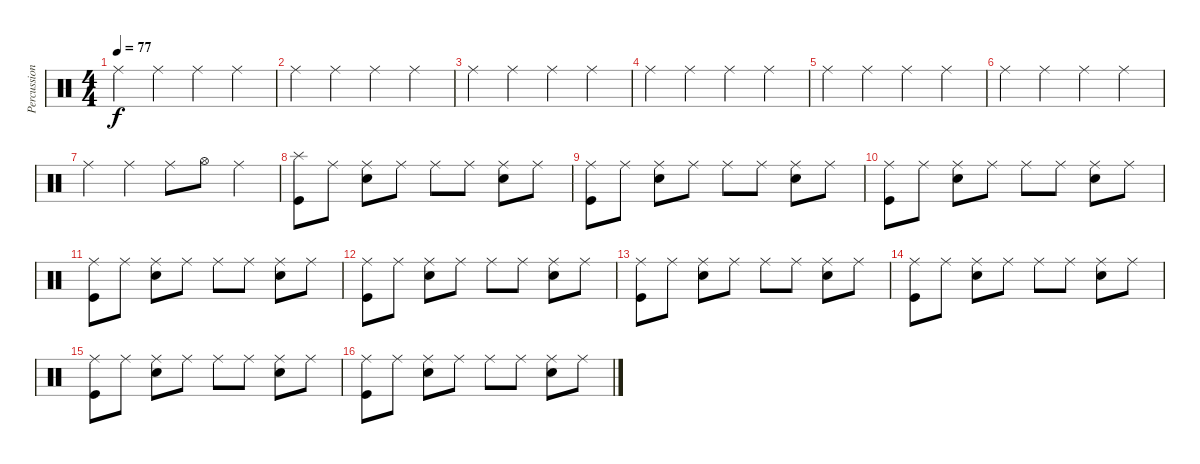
\track ("Percussions" "Percussion") {instrument percussion}
\staff {score}
\articulation defaults
\ts (4 4)
\tempo 77
\clef neutral
\ks c "Ride (middle)".4{dy f} "Ride (middle)".4 "Ride (middle)".4 "Ride (middle)".4
|
"Ride (middle)".4 "Ride (middle)".4 "Ride (middle)".4 "Ride (middle)".4 |
"Ride (middle)".4 "Ride (middle)".4 "Ride (middle)".4 "Ride (middle)".4 |
"Ride (middle)".4 "Ride (middle)".4 "Ride (middle)".4 "Ride (middle)".4 |
"Ride (middle)".4 "Ride (middle)".4 "Ride (middle)".4 "Ride (middle)".4 |
"Ride (middle)".4 "Ride (middle)".4 "Ride (middle)".4 "Ride (middle)".4 |
"Ride (middle)".4 "Ride (middle)".4 "Ride (middle)".8 "Hi-Hat (open)".8 "Ride (middle)".4 |
("Splash (hit)" "Kick (hit)").8{volume 10} "Ride (middle)".8 ("Ride (middle)" "Electric Snare (hit)").8 "Ride (middle)".8 "Ride (middle)".8 "Ride (middle)".8 ("Ride (middle)" "Electric Snare (hit)").8 "Ride (middle)".8 |
("Ride (middle)" "Kick (hit)").8 "Ride (middle)".8 ("Ride (middle)" "Electric Snare (hit)").8 "Ride (middle)".8 "Ride (middle)".8 "Ride (middle)".8 ("Ride (middle)" "Electric Snare (hit)").8 "Ride (middle)".8 |
("Ride (middle)" "Kick (hit)").8 "Ride (middle)".8 ("Ride (middle)" "Electric Snare (hit)").8 "Ride (middle)".8 "Ride (middle)".8 "Ride (middle)".8 ("Ride (middle)" "Electric Snare (hit)").8 "Ride (middle)".8 |
("Ride (middle)" "Kick (hit)").8 "Ride (middle)".8 ("Ride (middle)" "Electric Snare (hit)").8 "Ride (middle)".8 "Ride (middle)".8 "Ride (middle)".8 ("Ride (middle)" "Electric Snare (hit)").8 "Ride (middle)".8 |
("Ride (middle)" "Kick (hit)").8 "Ride (middle)".8 ("Ride (middle)" "Electric Snare (hit)").8 "Ride (middle)".8 "Ride (middle)".8 "Ride (middle)".8 ("Ride (middle)" "Electric Snare (hit)").8 "Ride (middle)".8 |
("Ride (middle)" "Kick (hit)").8 "Ride (middle)".8 ("Ride (middle)" "Electric Snare (hit)").8 "Ride (middle)".8 "Ride (middle)".8 "Ride (middle)".8 ("Ride (middle)" "Electric Snare (hit)").8 "Ride (middle)".8 |
("Ride (middle)" "Kick (hit)").8 "Ride (middle)".8 ("Ride (middle)" "Electric Snare (hit)").8 "Ride (middle)".8 "Ride (middle)".8 "Ride (middle)".8 ("Ride (middle)" "Electric Snare (hit)").8 "Ride (middle)".8 |
("Ride (middle)" "Kick (hit)").8 "Ride (middle)".8 ("Ride (middle)" "Electric Snare (hit)").8 "Ride (middle)".8 "Ride (middle)".8 "Ride (middle)".8 ("Ride (middle)" "Electric Snare (hit)").8 "Ride (middle)".8 |
("Ride (middle)" "Kick (hit)").8 "Ride (middle)".8 ("Ride (middle)" "Electric Snare (hit)").8 "Ride (middle)".8 "Ride (middle)".8 "Ride (middle)".8 ("Ride (middle)" "Electric Snare (hit)").8 "Ride (middle)".8
